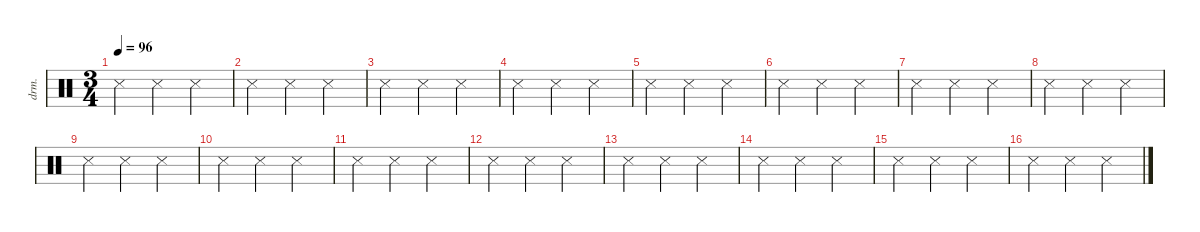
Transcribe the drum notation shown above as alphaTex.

\defaultSystemsLayout 4
\hideDynamics
\bracketExtendMode nobrackets
\otherSystemsTrackNameOrientation horizontal
\track ("Drumkit" "drm.") {instrument percussion}
\staff {score}
\articulation defaults
\ts (3 4)
\beaming (8 2 2 2)
\tempo 96
\clef neutral
\ks c "Metronome (hit)".4{dy mf} "Metronome (hit)".4 "Metronome (hit)".4
|
"Metronome (hit)".4 "Metronome (hit)".4 "Metronome (hit)".4 |
"Metronome (hit)".4 "Metronome (hit)".4 "Metronome (hit)".4 |
"Metronome (hit)".4 "Metronome (hit)".4 "Metronome (hit)".4 |
"Metronome (hit)".4 "Metronome (hit)".4 "Metronome (hit)".4 |
"Metronome (hit)".4 "Metronome (hit)".4 "Metronome (hit)".4 |
"Metronome (hit)".4 "Metronome (hit)".4 "Metronome (hit)".4 |
"Metronome (hit)".4 "Metronome (hit)".4 "Metronome (hit)".4 |
"Metronome (hit)".4 "Metronome (hit)".4 "Metronome (hit)".4 |
"Metronome (hit)".4 "Metronome (hit)".4 "Metronome (hit)".4 |
"Metronome (hit)".4 "Metronome (hit)".4 "Metronome (hit)".4 |
"Metronome (hit)".4 "Metronome (hit)".4 "Metronome (hit)".4 |
"Metronome (hit)".4 "Metronome (hit)".4 "Metronome (hit)".4 |
"Metronome (hit)".4 "Metronome (hit)".4 "Metronome (hit)".4 |
"Metronome (hit)".4 "Metronome (hit)".4 "Metronome (hit)".4 |
"Metronome (hit)".4 "Metronome (hit)".4 "Metronome (hit)".4
